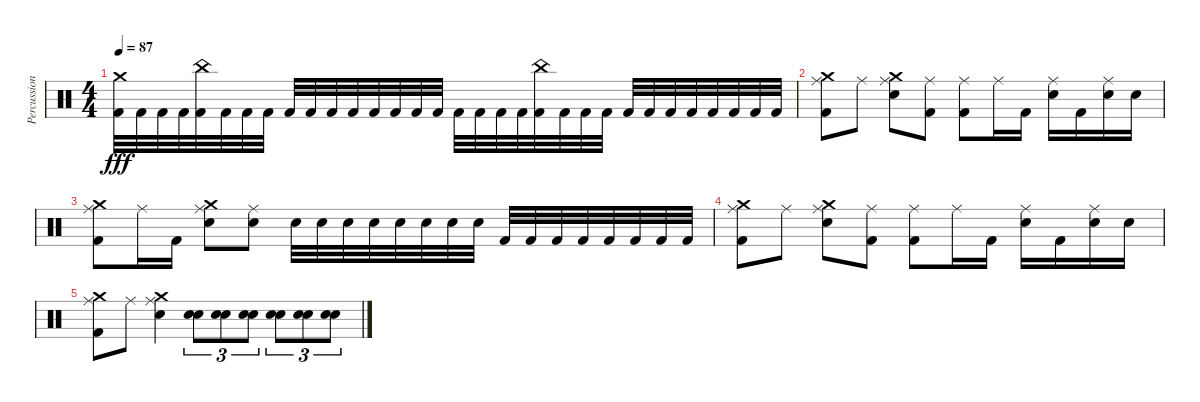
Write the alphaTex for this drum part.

\track ("Percussion" "Percussion") {instrument percussion}
\staff {score}
\articulation defaults
\ts (4 4)
\tempo 87
\clef neutral
\ks c
("Crash medium (hit)" "Kick (hit) 2").32{dy fff} "Kick (hit) 2".32 "Kick (hit) 2".32 "Kick (hit) 2".32 ("China (hit)" "Kick (hit) 2").32 "Kick (hit) 2".32 "Kick (hit) 2".32 "Kick (hit) 2".32 "Kick (hit) 2".32 "Kick (hit) 2".32 "Kick (hit) 2".32 "Kick (hit) 2".32 "Kick (hit) 2".32 "Kick (hit) 2".32 "Kick (hit) 2".32 "Kick (hit) 2".32 "Kick (hit) 2".32 "Kick (hit) 2".32 "Kick (hit) 2".32 "Kick (hit) 2".32 ("China (hit)" "Kick (hit) 2").32 "Kick (hit) 2".32 "Kick (hit) 2".32 "Kick (hit) 2".32 "Kick (hit) 2".32 "Kick (hit) 2".32 "Kick (hit) 2".32 "Kick (hit) 2".32 "Kick (hit) 2".32 "Kick (hit) 2".32 "Kick (hit) 2".32 "Kick (hit) 2".32 |
("Ride (middle)" "Crash medium (hit)" "Kick (hit) 2").8 "Ride (middle)".8 ("Ride (middle)" "Crash medium (hit)" "Electric Snare (hit)").8 ("Ride (middle)" "Kick (hit) 2").8 ("Ride (middle)" "Kick (hit) 2").8 "Ride (middle)".16 "Kick (hit) 2".16 ("Ride (middle)" "Electric Snare (hit)").16 "Kick (hit) 2".16 ("Ride (middle)" "Electric Snare (hit)").16 "Electric Snare (hit)".16 |
("Ride (middle)" "Crash medium (hit)" "Kick (hit) 2").8 "Ride (middle)".16 "Kick (hit) 2".16 ("Ride (middle)" "Crash medium (hit)" "Electric Snare (hit)").8 ("Ride (middle)" "Electric Snare (hit)").8 "Electric Snare (hit)".32 "Electric Snare (hit)".32 "Electric Snare (hit)".32 "Electric Snare (hit)".32 "Electric Snare (hit)".32 "Electric Snare (hit)".32 "Electric Snare (hit)".32 "Electric Snare (hit)".32 "Kick (hit) 2".32 "Kick (hit) 2".32 "Kick (hit) 2".32 "Kick (hit) 2".32 "Kick (hit) 2".32 "Kick (hit) 2".32 "Kick (hit) 2".32 "Kick (hit) 2".32 |
("Ride (middle)" "Crash medium (hit)" "Kick (hit) 2").8 "Ride (middle)".8 ("Ride (middle)" "Crash medium (hit)" "Electric Snare (hit)").8 ("Ride (middle)" "Kick (hit) 2").8 ("Ride (middle)" "Kick (hit) 2").8 "Ride (middle)".16 "Kick (hit) 2".16 ("Ride (middle)" "Electric Snare (hit)").16 "Kick (hit) 2".16 ("Ride (middle)" "Electric Snare (hit)").16 "Electric Snare (hit)".16 |
("Ride (middle)" "Crash medium (hit)" "Kick (hit) 2").8 "Ride (middle)".8 ("Ride (middle)" "Crash medium (hit)" "Electric Snare (hit)").4 ("Electric Snare (hit)" "Electric Snare (hit)").8{tu (3 2)} ("Electric Snare (hit)" "Electric Snare (hit)").8{tu (3 2)} ("Electric Snare (hit)" "Electric Snare (hit)").8{tu (3 2)} ("Electric Snare (hit)" "Electric Snare (hit)").8{tu (3 2)} ("Electric Snare (hit)" "Electric Snare (hit)").8{tu (3 2)} ("Electric Snare (hit)" "Electric Snare (hit)").8{tu (3 2)}
